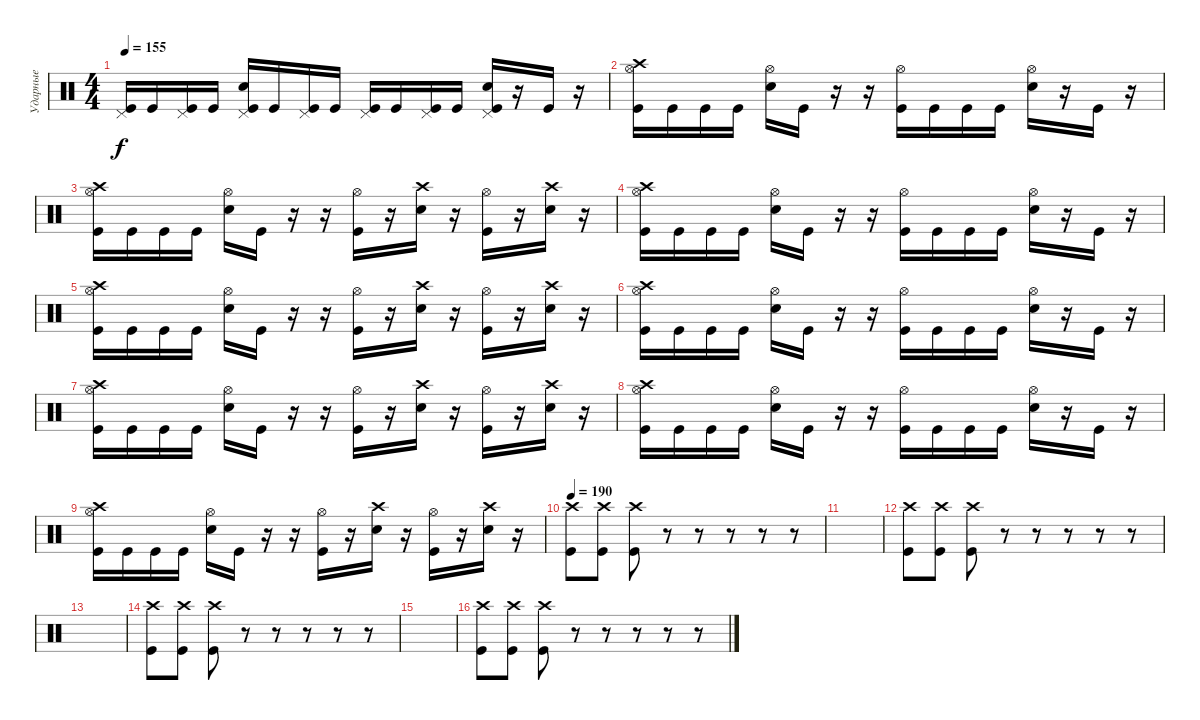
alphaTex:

\track ("Ударные" "Ударные") {instrument percussion}
\staff {score}
\articulation defaults
\ts (4 4)
\tempo 155
\clef neutral
\ks c
("Pedal Hi-Hat (hit)" "Kick (hit)").16{dy f} "Kick (hit)".16 ("Pedal Hi-Hat (hit)" "Kick (hit)").16 "Kick (hit)".16 ("Pedal Hi-Hat (hit)" "Electric Snare (hit)" "Kick (hit)").16 "Kick (hit)".16 ("Pedal Hi-Hat (hit)" "Kick (hit)").16 "Kick (hit)".16 ("Pedal Hi-Hat (hit)" "Kick (hit)").16 "Kick (hit)".16 ("Pedal Hi-Hat (hit)" "Kick (hit)").16 "Kick (hit)".16 ("Pedal Hi-Hat (hit)" "Electric Snare (hit)" "Kick (hit)").16 r.16 "Kick (hit)".16 r.16 |
("Hi-Hat (open)" "Crash high (hit)" "Kick (hit)").16 "Kick (hit)".16 "Kick (hit)".16 "Kick (hit)".16 ("Hi-Hat (open)" "Electric Snare (hit)").16 "Kick (hit)".16 r.16 r.16 ("Hi-Hat (open)" "Kick (hit)").16 "Kick (hit)".16 "Kick (hit)".16 "Kick (hit)".16 ("Hi-Hat (open)" "Electric Snare (hit)").16 r.16 "Kick (hit)".16 r.16 |
("Hi-Hat (open)" "Crash high (hit)" "Kick (hit)").16 "Kick (hit)".16 "Kick (hit)".16 "Kick (hit)".16 ("Hi-Hat (open)" "Electric Snare (hit)").16 "Kick (hit)".16 r.16 r.16 ("Hi-Hat (open)" "Kick (hit)").16 r.16 ("Electric Snare (hit)" "Crash high (hit)").16 r.16 ("Hi-Hat (open)" "Kick (hit)").16 r.16 ("Electric Snare (hit)" "Crash high (hit)").16 r.16 |
("Hi-Hat (open)" "Crash high (hit)" "Kick (hit)").16 "Kick (hit)".16 "Kick (hit)".16 "Kick (hit)".16 ("Hi-Hat (open)" "Electric Snare (hit)").16 "Kick (hit)".16 r.16 r.16 ("Hi-Hat (open)" "Kick (hit)").16 "Kick (hit)".16 "Kick (hit)".16 "Kick (hit)".16 ("Hi-Hat (open)" "Electric Snare (hit)").16 r.16 "Kick (hit)".16 r.16 |
("Hi-Hat (open)" "Crash high (hit)" "Kick (hit)").16 "Kick (hit)".16 "Kick (hit)".16 "Kick (hit)".16 ("Hi-Hat (open)" "Electric Snare (hit)").16 "Kick (hit)".16 r.16 r.16 ("Hi-Hat (open)" "Kick (hit)").16 r.16 ("Electric Snare (hit)" "Crash high (hit)").16 r.16 ("Hi-Hat (open)" "Kick (hit)").16 r.16 ("Electric Snare (hit)" "Crash high (hit)").16 r.16 |
("Hi-Hat (open)" "Crash high (hit)" "Kick (hit)").16 "Kick (hit)".16 "Kick (hit)".16 "Kick (hit)".16 ("Hi-Hat (open)" "Electric Snare (hit)").16 "Kick (hit)".16 r.16 r.16 ("Hi-Hat (open)" "Kick (hit)").16 "Kick (hit)".16 "Kick (hit)".16 "Kick (hit)".16 ("Hi-Hat (open)" "Electric Snare (hit)").16 r.16 "Kick (hit)".16 r.16 |
("Hi-Hat (open)" "Crash high (hit)" "Kick (hit)").16 "Kick (hit)".16 "Kick (hit)".16 "Kick (hit)".16 ("Hi-Hat (open)" "Electric Snare (hit)").16 "Kick (hit)".16 r.16 r.16 ("Hi-Hat (open)" "Kick (hit)").16 r.16 ("Electric Snare (hit)" "Crash high (hit)").16 r.16 ("Hi-Hat (open)" "Kick (hit)").16 r.16 ("Electric Snare (hit)" "Crash high (hit)").16 r.16 |
("Hi-Hat (open)" "Crash high (hit)" "Kick (hit)").16 "Kick (hit)".16 "Kick (hit)".16 "Kick (hit)".16 ("Hi-Hat (open)" "Electric Snare (hit)").16 "Kick (hit)".16 r.16 r.16 ("Hi-Hat (open)" "Kick (hit)").16 "Kick (hit)".16 "Kick (hit)".16 "Kick (hit)".16 ("Hi-Hat (open)" "Electric Snare (hit)").16 r.16 "Kick (hit)".16 r.16 |
("Hi-Hat (open)" "Crash high (hit)" "Kick (hit)").16 "Kick (hit)".16 "Kick (hit)".16 "Kick (hit)".16 ("Hi-Hat (open)" "Electric Snare (hit)").16 "Kick (hit)".16 r.16 r.16 ("Hi-Hat (open)" "Kick (hit)").16 r.16 ("Electric Snare (hit)" "Crash high (hit)").16 r.16 ("Hi-Hat (open)" "Kick (hit)").16 r.16 ("Electric Snare (hit)" "Crash high (hit)").16 r.16 |
\tempo 190
("Crash high (hit)" "Kick (hit)").8 ("Crash high (hit)" "Kick (hit)").8 ("Crash high (hit)" "Kick (hit)").8 r.8 r.8 r.8 r.8 r.8 |
|
("Crash high (hit)" "Kick (hit)").8 ("Crash high (hit)" "Kick (hit)").8 ("Crash high (hit)" "Kick (hit)").8 r.8 r.8 r.8 r.8 r.8 |
|
("Crash high (hit)" "Kick (hit)").8 ("Crash high (hit)" "Kick (hit)").8 ("Crash high (hit)" "Kick (hit)").8 r.8 r.8 r.8 r.8 r.8 |
|
("Crash high (hit)" "Kick (hit)").8 ("Crash high (hit)" "Kick (hit)").8 ("Crash high (hit)" "Kick (hit)").8 r.8 r.8 r.8 r.8 r.8
